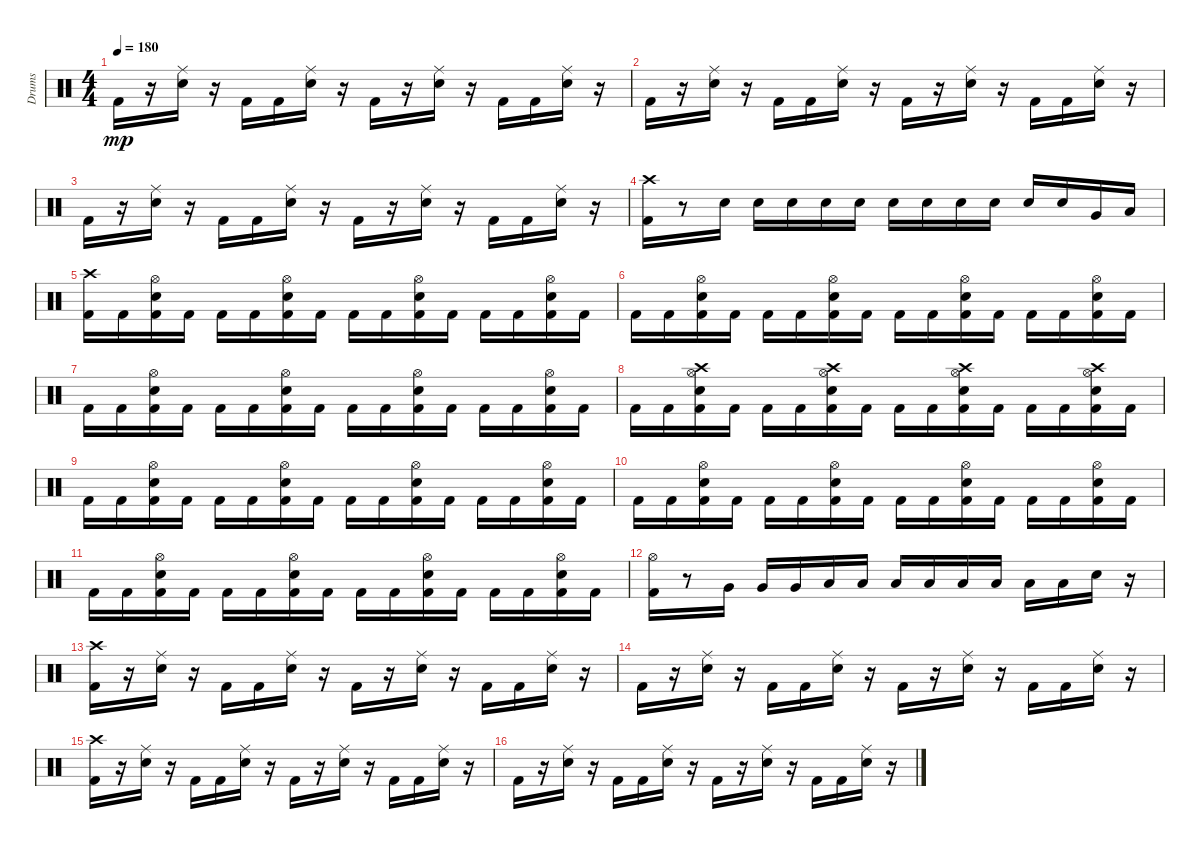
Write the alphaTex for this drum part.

\track ("Drums" "Drums") {instrument percussion}
\staff {score}
\articulation defaults
\ts (4 4)
\tempo 180
\clef neutral
\ks c "Kick (hit) 2".16{dy mp}
r.16 ("Electric Snare (hit)" "Ride (middle)").16 r.16 "Kick (hit) 2".16 "Kick (hit) 2".16 ("Ride (middle)" "Electric Snare (hit)").16 r.16 "Kick (hit) 2".16 r.16 ("Electric Snare (hit)" "Ride (middle)").16 r.16 "Kick (hit) 2".16 "Kick (hit) 2".16 ("Ride (middle)" "Electric Snare (hit)").16 r.16 |
"Kick (hit) 2".16 r.16 ("Ride (middle)" "Electric Snare (hit)").16 r.16 "Kick (hit) 2".16 "Kick (hit) 2".16 ("Electric Snare (hit)" "Ride (middle)").16 r.16 "Kick (hit) 2".16 r.16 ("Ride (middle)" "Electric Snare (hit)").16 r.16 "Kick (hit) 2".16 "Kick (hit) 2".16 ("Ride (middle)" "Electric Snare (hit)").16 r.16 |
"Kick (hit) 2".16 r.16 ("Electric Snare (hit)" "Ride (middle)").16 r.16 "Kick (hit) 2".16 "Kick (hit) 2".16 ("Ride (middle)" "Electric Snare (hit)").16 r.16 "Kick (hit) 2".16 r.16 ("Electric Snare (hit)" "Ride (middle)").16 r.16 "Kick (hit) 2".16 "Kick (hit) 2".16 ("Ride (middle)" "Electric Snare (hit)").16 r.16 |
("Crash high (hit)" "Kick (hit) 2").16 r.8 "Electric Snare (hit)".16 "Electric Snare (hit)".16 "Electric Snare (hit)".16 "Electric Snare (hit)".16 "Electric Snare (hit)".16 "Electric Snare (hit)".16 "Electric Snare (hit)".16 "Electric Snare (hit)".16 "Electric Snare (hit)".16 "Electric Snare (hit)".16 "Electric Snare (hit)".16 "Very Low Tom (hit)".16 "Low Floor Tom (hit)".16 |
("Kick (hit) 2" "Crash high (hit)").16 "Kick (hit) 2".16 ("Hi-Hat (open)" "Kick (hit) 2" "Electric Snare (hit)").16 "Kick (hit) 2".16 "Kick (hit) 2".16 "Kick (hit) 2".16 ("Kick (hit) 2" "Hi-Hat (open)" "Electric Snare (hit)").16 "Kick (hit) 2".16 "Kick (hit) 2".16 "Kick (hit) 2".16 ("Hi-Hat (open)" "Electric Snare (hit)" "Kick (hit) 2").16 "Kick (hit) 2".16 "Kick (hit) 2".16 "Kick (hit) 2".16 ("Hi-Hat (open)" "Kick (hit) 2" "Electric Snare (hit)").16 "Kick (hit) 2".16 |
"Kick (hit) 2".16 "Kick (hit) 2".16 ("Kick (hit) 2" "Hi-Hat (open)" "Electric Snare (hit)").16 "Kick (hit) 2".16 "Kick (hit) 2".16 "Kick (hit) 2".16 ("Hi-Hat (open)" "Kick (hit) 2" "Electric Snare (hit)").16 "Kick (hit) 2".16 "Kick (hit) 2".16 "Kick (hit) 2".16 ("Kick (hit) 2" "Hi-Hat (open)" "Electric Snare (hit)").16 "Kick (hit) 2".16 "Kick (hit) 2".16 "Kick (hit) 2".16 ("Kick (hit) 2" "Hi-Hat (open)" "Electric Snare (hit)").16 "Kick (hit) 2".16 |
"Kick (hit) 2".16 "Kick (hit) 2".16 ("Hi-Hat (open)" "Kick (hit) 2" "Electric Snare (hit)").16 "Kick (hit) 2".16 "Kick (hit) 2".16 "Kick (hit) 2".16 ("Electric Snare (hit)" "Hi-Hat (open)" "Kick (hit) 2").16 "Kick (hit) 2".16 "Kick (hit) 2".16 "Kick (hit) 2".16 ("Hi-Hat (open)" "Kick (hit) 2" "Electric Snare (hit)").16 "Kick (hit) 2".16 "Kick (hit) 2".16 "Kick (hit) 2".16 ("Hi-Hat (open)" "Electric Snare (hit)" "Kick (hit) 2").16 "Kick (hit) 2".16 |
"Kick (hit) 2".16 "Kick (hit) 2".16 ("Kick (hit) 2" "Electric Snare (hit)" "Hi-Hat (open)" "Crash high (hit)").16 "Kick (hit) 2".16 "Kick (hit) 2".16 "Kick (hit) 2".16 ("Kick (hit) 2" "Hi-Hat (open)" "Electric Snare (hit)" "Crash high (hit)").16 "Kick (hit) 2".16 "Kick (hit) 2".16 "Kick (hit) 2".16 ("Electric Snare (hit)" "Hi-Hat (open)" "Crash high (hit)" "Kick (hit) 2").16 "Kick (hit) 2".16 "Kick (hit) 2".16 "Kick (hit) 2".16 ("Crash high (hit)" "Hi-Hat (open)" "Electric Snare (hit)" "Kick (hit) 2").16 "Kick (hit) 2".16 |
"Kick (hit) 2".16 "Kick (hit) 2".16 ("Hi-Hat (open)" "Kick (hit) 2" "Electric Snare (hit)").16 "Kick (hit) 2".16 "Kick (hit) 2".16 "Kick (hit) 2".16 ("Hi-Hat (open)" "Electric Snare (hit)" "Kick (hit) 2").16 "Kick (hit) 2".16 "Kick (hit) 2".16 "Kick (hit) 2".16 ("Electric Snare (hit)" "Kick (hit) 2" "Hi-Hat (open)").16 "Kick (hit) 2".16 "Kick (hit) 2".16 "Kick (hit) 2".16 ("Electric Snare (hit)" "Hi-Hat (open)" "Kick (hit) 2").16 "Kick (hit) 2".16 |
"Kick (hit) 2".16 "Kick (hit) 2".16 ("Electric Snare (hit)" "Kick (hit) 2" "Hi-Hat (open)").16 "Kick (hit) 2".16 "Kick (hit) 2".16 "Kick (hit) 2".16 ("Kick (hit) 2" "Electric Snare (hit)" "Hi-Hat (open)").16 "Kick (hit) 2".16 "Kick (hit) 2".16 "Kick (hit) 2".16 ("Electric Snare (hit)" "Hi-Hat (open)" "Kick (hit) 2").16 "Kick (hit) 2".16 "Kick (hit) 2".16 "Kick (hit) 2".16 ("Kick (hit) 2" "Hi-Hat (open)" "Electric Snare (hit)").16 "Kick (hit) 2".16 |
"Kick (hit) 2".16 "Kick (hit) 2".16 ("Kick (hit) 2" "Electric Snare (hit)" "Hi-Hat (open)").16 "Kick (hit) 2".16 "Kick (hit) 2".16 "Kick (hit) 2".16 ("Kick (hit) 2" "Hi-Hat (open)" "Electric Snare (hit)").16 "Kick (hit) 2".16 "Kick (hit) 2".16 "Kick (hit) 2".16 ("Kick (hit) 2" "Electric Snare (hit)" "Hi-Hat (open)").16 "Kick (hit) 2".16 "Kick (hit) 2".16 "Kick (hit) 2".16 ("Kick (hit) 2" "Hi-Hat (open)" "Electric Snare (hit)").16 "Kick (hit) 2".16 |
("Hi-Hat (open)" "Kick (hit) 2").16 r.8 "Very Low Tom (hit)".16 "Very Low Tom (hit)".16 "Very Low Tom (hit)".16 "Low Floor Tom (hit)".16 "Low Floor Tom (hit)".16 "Low Floor Tom (hit)".16 "Low Floor Tom (hit)".16 "Low Floor Tom (hit)".16 "Low Floor Tom (hit)".16 "Low Floor Tom (hit)".16 "Low Floor Tom (hit)".16 "Electric Snare (hit)".16 r.16 |
("Crash high (hit)" "Kick (hit) 2").16 r.16 ("Electric Snare (hit)" "Ride (middle)").16 r.16 "Kick (hit) 2".16 "Kick (hit) 2".16 ("Electric Snare (hit)" "Ride (middle)").16 r.16 "Kick (hit) 2".16 r.16 ("Ride (middle)" "Electric Snare (hit)").16 r.16 "Kick (hit) 2".16 "Kick (hit) 2".16 ("Electric Snare (hit)" "Ride (middle)").16 r.16 |
"Kick (hit) 2".16 r.16 ("Electric Snare (hit)" "Ride (middle)").16 r.16 "Kick (hit) 2".16 "Kick (hit) 2".16 ("Ride (middle)" "Electric Snare (hit)").16 r.16 "Kick (hit) 2".16 r.16 ("Electric Snare (hit)" "Ride (middle)").16 r.16 "Kick (hit) 2".16 "Kick (hit) 2".16 ("Ride (middle)" "Electric Snare (hit)").16 r.16 |
("Crash high (hit)" "Kick (hit) 2").16 r.16 ("Electric Snare (hit)" "Ride (middle)").16 r.16 "Kick (hit) 2".16 "Kick (hit) 2".16 ("Electric Snare (hit)" "Ride (middle)").16 r.16 "Kick (hit) 2".16 r.16 ("Electric Snare (hit)" "Ride (middle)").16 r.16 "Kick (hit) 2".16 "Kick (hit) 2".16 ("Ride (middle)" "Electric Snare (hit)").16 r.16 |
"Kick (hit) 2".16 r.16 ("Electric Snare (hit)" "Ride (middle)").16 r.16 "Kick (hit) 2".16 "Kick (hit) 2".16 ("Ride (middle)" "Electric Snare (hit)").16 r.16 "Kick (hit) 2".16 r.16 ("Electric Snare (hit)" "Ride (middle)").16 r.16 "Kick (hit) 2".16 "Kick (hit) 2".16 ("Ride (middle)" "Electric Snare (hit)").16 r.16
